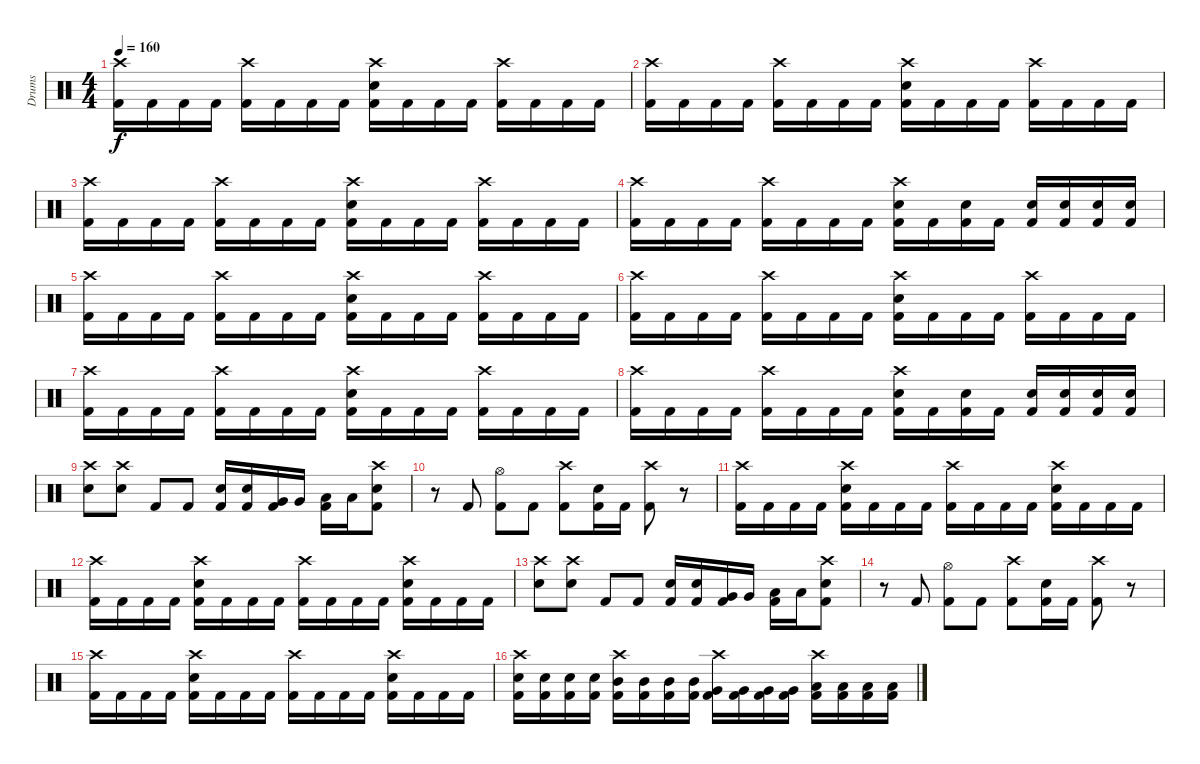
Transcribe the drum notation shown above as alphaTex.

\track ("Drums" "Drums") {instrument percussion}
\staff {score}
\articulation defaults
\ts (4 4)
\tempo 160
\clef neutral
\ks c
("Crash high (hit)" "Kick (hit) 2").16{dy f} "Kick (hit) 2".16 "Kick (hit) 2".16 "Kick (hit) 2".16 ("Crash high (hit)" "Kick (hit) 2").16 "Kick (hit) 2".16 "Kick (hit) 2".16 "Kick (hit) 2".16 ("Crash high (hit)" "Electric Snare (hit)" "Kick (hit) 2").16 "Kick (hit) 2".16 "Kick (hit) 2".16 "Kick (hit) 2".16 ("Crash high (hit)" "Kick (hit) 2").16 "Kick (hit) 2".16 "Kick (hit) 2".16 "Kick (hit) 2".16 |
("Crash high (hit)" "Kick (hit) 2").16 "Kick (hit) 2".16 "Kick (hit) 2".16 "Kick (hit) 2".16 ("Crash high (hit)" "Kick (hit) 2").16 "Kick (hit) 2".16 "Kick (hit) 2".16 "Kick (hit) 2".16 ("Crash high (hit)" "Electric Snare (hit)" "Kick (hit) 2").16 "Kick (hit) 2".16 "Kick (hit) 2".16 "Kick (hit) 2".16 ("Crash high (hit)" "Kick (hit) 2").16 "Kick (hit) 2".16 "Kick (hit) 2".16 "Kick (hit) 2".16 |
("Crash high (hit)" "Kick (hit) 2").16 "Kick (hit) 2".16 "Kick (hit) 2".16 "Kick (hit) 2".16 ("Crash high (hit)" "Kick (hit) 2").16 "Kick (hit) 2".16 "Kick (hit) 2".16 "Kick (hit) 2".16 ("Crash high (hit)" "Electric Snare (hit)" "Kick (hit) 2").16 "Kick (hit) 2".16 "Kick (hit) 2".16 "Kick (hit) 2".16 ("Crash high (hit)" "Kick (hit) 2").16 "Kick (hit) 2".16 "Kick (hit) 2".16 "Kick (hit) 2".16 |
("Crash high (hit)" "Kick (hit) 2").16 "Kick (hit) 2".16 "Kick (hit) 2".16 "Kick (hit) 2".16 ("Crash high (hit)" "Kick (hit) 2").16 "Kick (hit) 2".16 "Kick (hit) 2".16 "Kick (hit) 2".16 ("Crash high (hit)" "Electric Snare (hit)" "Kick (hit) 2").16 "Kick (hit) 2".16 ("Electric Snare (hit)" "Kick (hit) 2").16 "Kick (hit) 2".16 ("Electric Snare (hit)" "Kick (hit) 2").16 ("Electric Snare (hit)" "Kick (hit) 2").16 ("Electric Snare (hit)" "Kick (hit) 2").16 ("Electric Snare (hit)" "Kick (hit) 2").16 |
("Crash high (hit)" "Kick (hit) 2").16 "Kick (hit) 2".16 "Kick (hit) 2".16 "Kick (hit) 2".16 ("Crash high (hit)" "Kick (hit) 2").16 "Kick (hit) 2".16 "Kick (hit) 2".16 "Kick (hit) 2".16 ("Crash high (hit)" "Electric Snare (hit)" "Kick (hit) 2").16 "Kick (hit) 2".16 "Kick (hit) 2".16 "Kick (hit) 2".16 ("Crash high (hit)" "Kick (hit) 2").16 "Kick (hit) 2".16 "Kick (hit) 2".16 "Kick (hit) 2".16 |
("Crash high (hit)" "Kick (hit) 2").16 "Kick (hit) 2".16 "Kick (hit) 2".16 "Kick (hit) 2".16 ("Crash high (hit)" "Kick (hit) 2").16 "Kick (hit) 2".16 "Kick (hit) 2".16 "Kick (hit) 2".16 ("Crash high (hit)" "Electric Snare (hit)" "Kick (hit) 2").16 "Kick (hit) 2".16 "Kick (hit) 2".16 "Kick (hit) 2".16 ("Crash high (hit)" "Kick (hit) 2").16 "Kick (hit) 2".16 "Kick (hit) 2".16 "Kick (hit) 2".16 |
("Crash high (hit)" "Kick (hit) 2").16 "Kick (hit) 2".16 "Kick (hit) 2".16 "Kick (hit) 2".16 ("Crash high (hit)" "Kick (hit) 2").16 "Kick (hit) 2".16 "Kick (hit) 2".16 "Kick (hit) 2".16 ("Crash high (hit)" "Electric Snare (hit)" "Kick (hit) 2").16 "Kick (hit) 2".16 "Kick (hit) 2".16 "Kick (hit) 2".16 ("Crash high (hit)" "Kick (hit) 2").16 "Kick (hit) 2".16 "Kick (hit) 2".16 "Kick (hit) 2".16 |
("Crash high (hit)" "Kick (hit) 2").16 "Kick (hit) 2".16 "Kick (hit) 2".16 "Kick (hit) 2".16 ("Crash high (hit)" "Kick (hit) 2").16 "Kick (hit) 2".16 "Kick (hit) 2".16 "Kick (hit) 2".16 ("Crash high (hit)" "Electric Snare (hit)" "Kick (hit) 2").16 "Kick (hit) 2".16 ("Electric Snare (hit)" "Kick (hit) 2").16 "Kick (hit) 2".16 ("Electric Snare (hit)" "Kick (hit) 2").16 ("Electric Snare (hit)" "Kick (hit) 2").16 ("Electric Snare (hit)" "Kick (hit) 2").16 ("Electric Snare (hit)" "Kick (hit) 2").16 |
("Crash high (hit)" "Electric Snare (hit)").8 ("Crash high (hit)" "Electric Snare (hit)").8 "Kick (hit) 2".8 "Kick (hit) 2".8 ("Electric Snare (hit)" "Kick (hit) 2").16 ("Electric Snare (hit)" "Kick (hit) 2").16 ("Very Low Tom (hit)" "Kick (hit) 2").16 "Very Low Tom (hit)".16 ("Low Floor Tom (hit)" "Kick (hit) 2").16 "Low Floor Tom (hit)".16 ("Crash high (hit)" "Electric Snare (hit)" "Kick (hit) 2").8 |
r.8 "Kick (hit) 2".8 ("Hi-Hat (open)" "Kick (hit) 2").8 "Kick (hit) 2".8 ("Crash high (hit)" "Kick (hit) 2").8 ("Electric Snare (hit)" "Kick (hit) 2").16 "Kick (hit) 2".16 ("Crash high (hit)" "Kick (hit) 2").8 r.8 |
("Crash high (hit)" "Kick (hit) 2").16 "Kick (hit) 2".16 "Kick (hit) 2".16 "Kick (hit) 2".16 ("Crash high (hit)" "Electric Snare (hit)" "Kick (hit) 2").16 "Kick (hit) 2".16 "Kick (hit) 2".16 "Kick (hit) 2".16 ("Crash high (hit)" "Kick (hit) 2").16 "Kick (hit) 2".16 "Kick (hit) 2".16 "Kick (hit) 2".16 ("Crash high (hit)" "Electric Snare (hit)" "Kick (hit) 2").16 "Kick (hit) 2".16 "Kick (hit) 2".16 "Kick (hit) 2".16 |
("Crash high (hit)" "Kick (hit) 2").16 "Kick (hit) 2".16 "Kick (hit) 2".16 "Kick (hit) 2".16 ("Crash high (hit)" "Electric Snare (hit)" "Kick (hit) 2").16 "Kick (hit) 2".16 "Kick (hit) 2".16 "Kick (hit) 2".16 ("Crash high (hit)" "Kick (hit) 2").16 "Kick (hit) 2".16 "Kick (hit) 2".16 "Kick (hit) 2".16 ("Crash high (hit)" "Electric Snare (hit)" "Kick (hit) 2").16 "Kick (hit) 2".16 "Kick (hit) 2".16 "Kick (hit) 2".16 |
("Crash high (hit)" "Electric Snare (hit)").8 ("Crash high (hit)" "Electric Snare (hit)").8 "Kick (hit) 2".8 "Kick (hit) 2".8 ("Electric Snare (hit)" "Kick (hit) 2").16 ("Electric Snare (hit)" "Kick (hit) 2").16 ("Very Low Tom (hit)" "Kick (hit) 2").16 "Very Low Tom (hit)".16 ("Low Floor Tom (hit)" "Kick (hit) 2").16 "Low Floor Tom (hit)".16 ("Crash high (hit)" "Electric Snare (hit)" "Kick (hit) 2").8 |
r.8 "Kick (hit) 2".8 ("Hi-Hat (open)" "Kick (hit) 2").8 "Kick (hit) 2".8 ("Crash high (hit)" "Kick (hit) 2").8 ("Electric Snare (hit)" "Kick (hit) 2").16 "Kick (hit) 2".16 ("Crash high (hit)" "Kick (hit) 2").8 r.8 |
("Crash high (hit)" "Kick (hit) 2").16 "Kick (hit) 2".16 "Kick (hit) 2".16 "Kick (hit) 2".16 ("Crash high (hit)" "Electric Snare (hit)" "Kick (hit) 2").16 "Kick (hit) 2".16 "Kick (hit) 2".16 "Kick (hit) 2".16 ("Crash high (hit)" "Kick (hit) 2").16 "Kick (hit) 2".16 "Kick (hit) 2".16 "Kick (hit) 2".16 ("Crash high (hit)" "Electric Snare (hit)" "Kick (hit) 2").16 "Kick (hit) 2".16 "Kick (hit) 2".16 "Kick (hit) 2".16 |
("Crash high (hit)" "Electric Snare (hit)" "Kick (hit) 2").16 ("Electric Snare (hit)" "Kick (hit) 2").16 ("Electric Snare (hit)" "Kick (hit) 2").16 ("Electric Snare (hit)" "Kick (hit) 2").16 ("Crash high (hit)" "Mid Tom (hit)" "Kick (hit) 2").16 ("Mid Tom (hit)" "Kick (hit) 2").16 ("Mid Tom (hit)" "Kick (hit) 2").16 ("Mid Tom (hit)" "Kick (hit) 2").16 ("Crash high (hit)" "Very Low Tom (hit)" "Kick (hit) 2").16 ("Very Low Tom (hit)" "Kick (hit) 2").16 ("Very Low Tom (hit)" "Kick (hit) 2").16 ("Very Low Tom (hit)" "Kick (hit) 2").16 ("Crash high (hit)" "Low Floor Tom (hit)" "Kick (hit) 2").16 ("Low Floor Tom (hit)" "Kick (hit) 2").16 ("Low Floor Tom (hit)" "Kick (hit) 2").16 ("Low Floor Tom (hit)" "Kick (hit) 2").16
